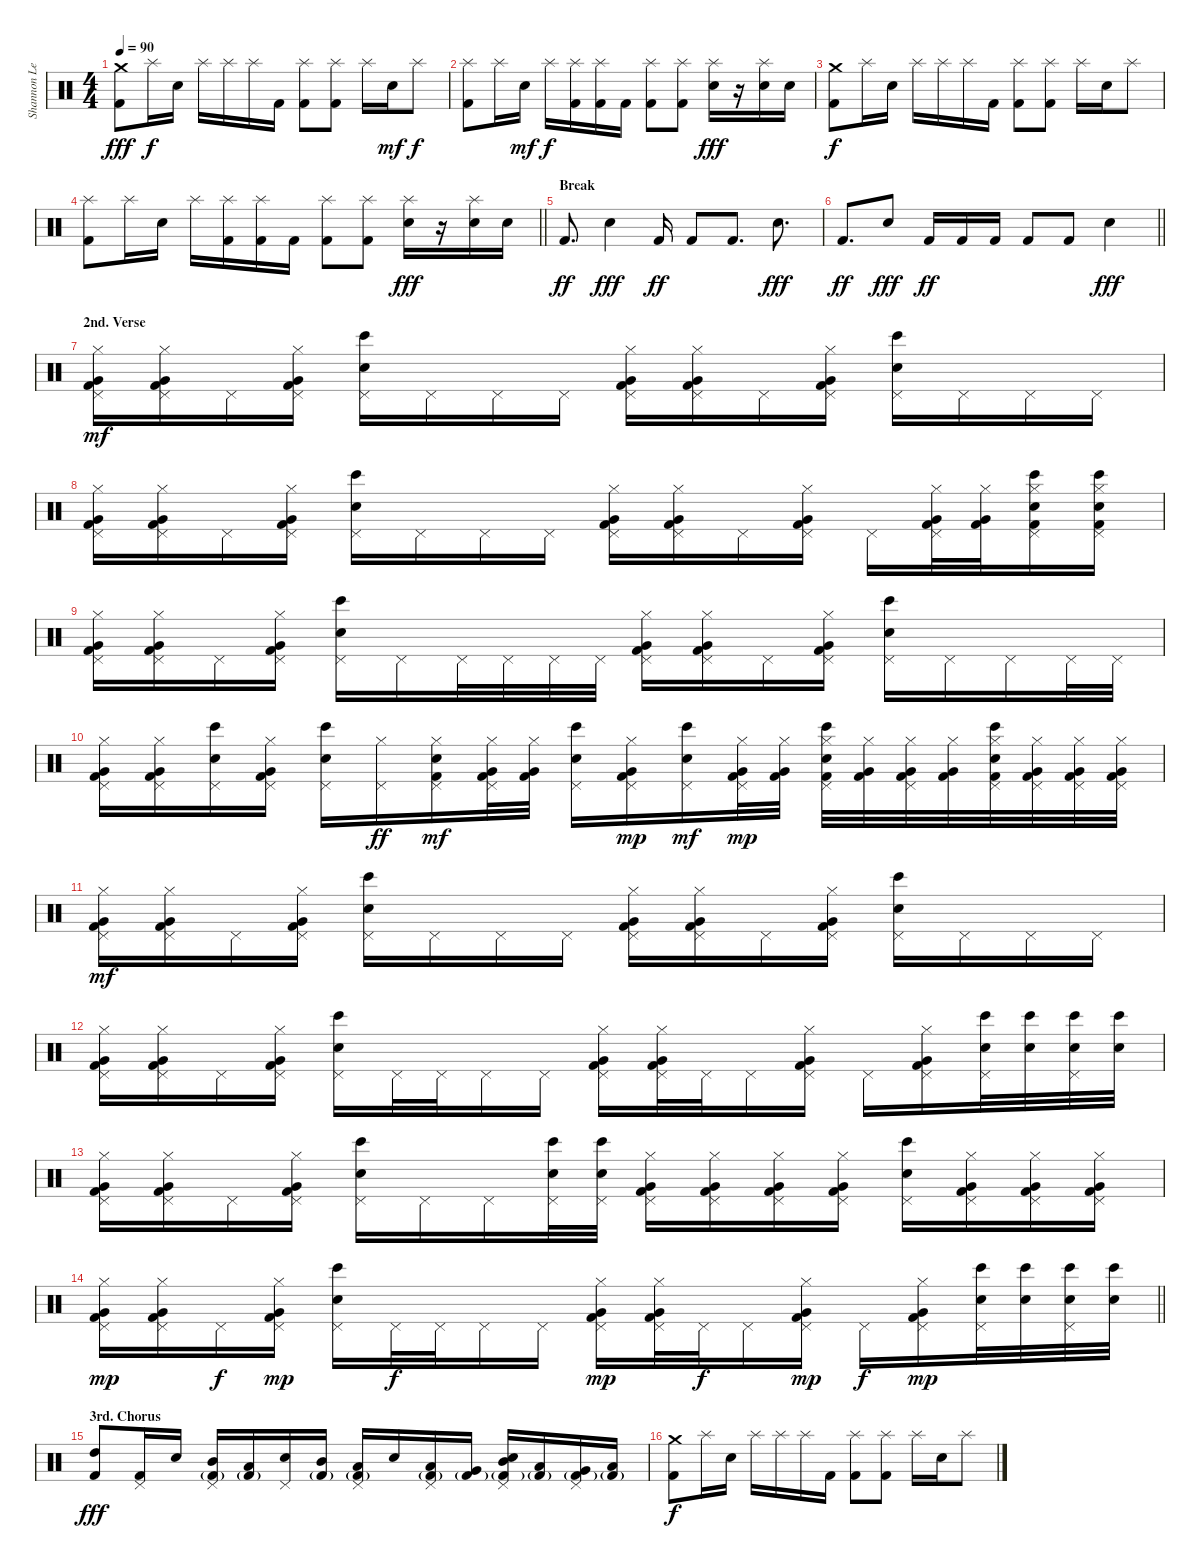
\track ("Shannon Leto - Drums" "Shannon Le") {instrument percussion}
\staff {score}
\articulation defaults
\ts (4 4)
\tempo 90
\clef neutral
\ks c
("Crash medium (hit)" "Kick (hit) 2").8{dy fff} "Splash (hit)".16{dy f} "Electric Snare (hit)".16 "Splash (hit)".16 "Splash (hit)".16 "Splash (hit)".16 "Kick (hit) 2".16 ("Splash (hit)" "Kick (hit) 2").8 ("Splash (hit)" "Kick (hit) 2").8 "Splash (hit)".16 "Electric Snare (hit)".16{dy mf} "Splash (hit)".8{dy f} |
("Splash (hit)" "Kick (hit) 2").8 "Splash (hit)".16 "Electric Snare (hit)".16{dy mf} "Splash (hit)".16{dy f} ("Splash (hit)" "Kick (hit) 2").16 ("Splash (hit)" "Kick (hit) 2").16 "Kick (hit) 2".16 ("Splash (hit)" "Kick (hit) 2").8 ("Splash (hit)" "Kick (hit) 2").8 ("Splash (hit)" "Electric Snare (hit)").16{dy fff} r.16 ("Splash (hit)" "Electric Snare (hit)").16 "Electric Snare (hit)".16 |
("Crash medium (hit)" "Kick (hit) 2").8{dy f} "Splash (hit)".16 "Electric Snare (hit)".16 "Splash (hit)".16 "Splash (hit)".16 "Splash (hit)".16 "Kick (hit) 2".16 ("Splash (hit)" "Kick (hit) 2").8 ("Splash (hit)" "Kick (hit) 2").8 "Splash (hit)".16 "Electric Snare (hit)".16 "Splash (hit)".8 |
\barLineRight lightlight
("Splash (hit)" "Kick (hit) 2").8 "Splash (hit)".16 "Electric Snare (hit)".16 "Splash (hit)".16 ("Splash (hit)" "Kick (hit) 2").16 ("Splash (hit)" "Kick (hit) 2").16 "Kick (hit) 2".16 ("Splash (hit)" "Kick (hit) 2").8 ("Splash (hit)" "Kick (hit) 2").8 ("Splash (hit)" "Electric Snare (hit)").16{dy fff} r.16 ("Splash (hit)" "Electric Snare (hit)").16 "Electric Snare (hit)".16 |
\section ("" "Break")
"Kick (hit) 2".8{d dy ff} "Electric Snare (hit)".4{dy fff} "Kick (hit) 2".16{dy ff} "Kick (hit) 2".8 "Kick (hit) 2".8{d} "Electric Snare (hit)".8{d dy fff} |
\barLineRight lightlight "Kick (hit) 2".8{d dy ff} "Electric Snare (hit)".8{dy fff} "Kick (hit) 2".16{dy ff} "Kick (hit) 2".16 "Kick (hit) 2".16 "Kick (hit) 2".8 "Kick (hit) 2".8 "Electric Snare (hit)".4{dy fff}
|
\section ("" "2nd. Verse")
("Pedal Hi-Hat (hit)" "Very Low Tom (hit)" "Hi-Hat (closed)" "Kick (hit) 2").16{dy mf volume 16} ("Pedal Hi-Hat (hit)" "Very Low Tom (hit)" "Hi-Hat (closed)" "Kick (hit) 2").16 "Pedal Hi-Hat (hit)".16 ("Pedal Hi-Hat (hit)" "Very Low Tom (hit)" "Hi-Hat (closed)" "Kick (hit) 2").16 ("Pedal Hi-Hat (hit)" "Snare (hit) 2" "Bongo High (hit)").16 "Pedal Hi-Hat (hit)".16 "Pedal Hi-Hat (hit)".16 "Pedal Hi-Hat (hit)".16 ("Pedal Hi-Hat (hit)" "Very Low Tom (hit)" "Hi-Hat (closed)" "Kick (hit) 2").16 ("Pedal Hi-Hat (hit)" "Very Low Tom (hit)" "Hi-Hat (closed)" "Kick (hit) 2").16 "Pedal Hi-Hat (hit)".16 ("Pedal Hi-Hat (hit)" "Very Low Tom (hit)" "Hi-Hat (closed)" "Kick (hit) 2").16 ("Pedal Hi-Hat (hit)" "Snare (hit) 2" "Bongo High (hit)").16 "Pedal Hi-Hat (hit)".16 "Pedal Hi-Hat (hit)".16 "Pedal Hi-Hat (hit)".16 |
("Pedal Hi-Hat (hit)" "Very Low Tom (hit)" "Hi-Hat (closed)" "Kick (hit) 2").16 ("Pedal Hi-Hat (hit)" "Very Low Tom (hit)" "Hi-Hat (closed)" "Kick (hit) 2").16 "Pedal Hi-Hat (hit)".16 ("Pedal Hi-Hat (hit)" "Very Low Tom (hit)" "Hi-Hat (closed)" "Kick (hit) 2").16 ("Pedal Hi-Hat (hit)" "Snare (hit) 2" "Bongo High (hit)").16 "Pedal Hi-Hat (hit)".16 "Pedal Hi-Hat (hit)".16 "Pedal Hi-Hat (hit)".16 ("Pedal Hi-Hat (hit)" "Very Low Tom (hit)" "Hi-Hat (closed)" "Kick (hit) 2").16 ("Pedal Hi-Hat (hit)" "Very Low Tom (hit)" "Hi-Hat (closed)" "Kick (hit) 2").16 "Pedal Hi-Hat (hit)".16 ("Pedal Hi-Hat (hit)" "Very Low Tom (hit)" "Hi-Hat (closed)" "Kick (hit) 2").16 "Pedal Hi-Hat (hit)".16 ("Pedal Hi-Hat (hit)" "Very Low Tom (hit)" "Hi-Hat (closed)" "Kick (hit) 2").32 ("Very Low Tom (hit)" "Hi-Hat (closed)" "Kick (hit) 2").32 ("Pedal Hi-Hat (hit)" "Snare (hit) 2" "Bongo High (hit)" "Hi-Hat (closed)" "Kick (hit) 2").16 ("Pedal Hi-Hat (hit)" "Snare (hit) 2" "Bongo High (hit)" "Hi-Hat (closed)" "Kick (hit) 2").16 |
("Pedal Hi-Hat (hit)" "Very Low Tom (hit)" "Hi-Hat (closed)" "Kick (hit) 2").16 ("Pedal Hi-Hat (hit)" "Very Low Tom (hit)" "Hi-Hat (closed)" "Kick (hit) 2").16 "Pedal Hi-Hat (hit)".16 ("Pedal Hi-Hat (hit)" "Very Low Tom (hit)" "Hi-Hat (closed)" "Kick (hit) 2").16 ("Pedal Hi-Hat (hit)" "Snare (hit) 2" "Bongo High (hit)").16 "Pedal Hi-Hat (hit)".16 "Pedal Hi-Hat (hit)".32 "Pedal Hi-Hat (hit)".32 "Pedal Hi-Hat (hit)".32 "Pedal Hi-Hat (hit)".32 ("Pedal Hi-Hat (hit)" "Very Low Tom (hit)" "Hi-Hat (closed)" "Kick (hit) 2").16 ("Pedal Hi-Hat (hit)" "Very Low Tom (hit)" "Hi-Hat (closed)" "Kick (hit) 2").16 "Pedal Hi-Hat (hit)".16 ("Pedal Hi-Hat (hit)" "Very Low Tom (hit)" "Hi-Hat (closed)" "Kick (hit) 2").16 ("Pedal Hi-Hat (hit)" "Snare (hit) 2" "Bongo High (hit)").16 "Pedal Hi-Hat (hit)".16 "Pedal Hi-Hat (hit)".16 "Pedal Hi-Hat (hit)".32 "Pedal Hi-Hat (hit)".32 |
("Pedal Hi-Hat (hit)" "Very Low Tom (hit)" "Hi-Hat (closed)" "Kick (hit) 2").16 ("Pedal Hi-Hat (hit)" "Very Low Tom (hit)" "Hi-Hat (closed)" "Kick (hit) 2").16 ("Pedal Hi-Hat (hit)" "Snare (hit) 2" "Bongo High (hit)").16 ("Pedal Hi-Hat (hit)" "Very Low Tom (hit)" "Hi-Hat (closed)" "Kick (hit) 2").16 ("Pedal Hi-Hat (hit)" "Snare (hit) 2" "Bongo High (hit)").16 ("Pedal Hi-Hat (hit)" "Hi-Hat (closed)").16{dy ff} ("Pedal Hi-Hat (hit)" "Snare (hit)" "Hi-Hat (closed)" "Kick (hit) 2").16{dy mf} ("Pedal Hi-Hat (hit)" "Very Low Tom (hit)" "Hi-Hat (closed)" "Kick (hit) 2").32 ("Very Low Tom (hit)" "Hi-Hat (closed)" "Kick (hit) 2").32 ("Pedal Hi-Hat (hit)" "Snare (hit) 2" "Bongo High (hit)").16 ("Pedal Hi-Hat (hit)" "Very Low Tom (hit)" "Hi-Hat (closed)" "Kick (hit) 2").16{dy mp} ("Pedal Hi-Hat (hit)" "Snare (hit) 2" "Bongo High (hit)").16{dy mf} ("Pedal Hi-Hat (hit)" "Very Low Tom (hit)" "Hi-Hat (closed)" "Kick (hit) 2").32{dy mp} ("Very Low Tom (hit)" "Hi-Hat (closed)" "Kick (hit) 2").32 ("Pedal Hi-Hat (hit)" "Snare (hit) 2" "Bongo High (hit)" "Hi-Hat (closed)" "Kick (hit) 2").32 ("Very Low Tom (hit)" "Hi-Hat (closed)" "Kick (hit) 2").32 ("Pedal Hi-Hat (hit)" "Very Low Tom (hit)" "Hi-Hat (closed)" "Kick (hit) 2").32 ("Very Low Tom (hit)" "Hi-Hat (closed)" "Kick (hit) 2").32 ("Pedal Hi-Hat (hit)" "Snare (hit) 2" "Bongo High (hit)" "Hi-Hat (closed)" "Kick (hit) 2").32 ("Pedal Hi-Hat (hit)" "Very Low Tom (hit)" "Hi-Hat (closed)" "Kick (hit) 2").32 ("Pedal Hi-Hat (hit)" "Very Low Tom (hit)" "Hi-Hat (closed)" "Kick (hit) 2").32 ("Pedal Hi-Hat (hit)" "Very Low Tom (hit)" "Hi-Hat (closed)" "Kick (hit) 2").32 |
("Pedal Hi-Hat (hit)" "Very Low Tom (hit)" "Hi-Hat (closed)" "Kick (hit) 2").16{dy mf} ("Pedal Hi-Hat (hit)" "Very Low Tom (hit)" "Hi-Hat (closed)" "Kick (hit) 2").16 "Pedal Hi-Hat (hit)".16 ("Pedal Hi-Hat (hit)" "Very Low Tom (hit)" "Hi-Hat (closed)" "Kick (hit) 2").16 ("Pedal Hi-Hat (hit)" "Snare (hit) 2" "Bongo High (hit)").16 "Pedal Hi-Hat (hit)".16 "Pedal Hi-Hat (hit)".16 "Pedal Hi-Hat (hit)".16 ("Pedal Hi-Hat (hit)" "Very Low Tom (hit)" "Hi-Hat (closed)" "Kick (hit) 2").16 ("Pedal Hi-Hat (hit)" "Very Low Tom (hit)" "Hi-Hat (closed)" "Kick (hit) 2").16 "Pedal Hi-Hat (hit)".16 ("Pedal Hi-Hat (hit)" "Very Low Tom (hit)" "Hi-Hat (closed)" "Kick (hit) 2").16 ("Pedal Hi-Hat (hit)" "Snare (hit) 2" "Bongo High (hit)").16 "Pedal Hi-Hat (hit)".16 "Pedal Hi-Hat (hit)".16 "Pedal Hi-Hat (hit)".16 |
("Pedal Hi-Hat (hit)" "Very Low Tom (hit)" "Hi-Hat (closed)" "Kick (hit) 2").16 ("Pedal Hi-Hat (hit)" "Very Low Tom (hit)" "Hi-Hat (closed)" "Kick (hit) 2").16 "Pedal Hi-Hat (hit)".16 ("Pedal Hi-Hat (hit)" "Very Low Tom (hit)" "Hi-Hat (closed)" "Kick (hit) 2").16 ("Pedal Hi-Hat (hit)" "Snare (hit) 2" "Bongo High (hit)").16 "Pedal Hi-Hat (hit)".32 "Pedal Hi-Hat (hit)".32 "Pedal Hi-Hat (hit)".16 "Pedal Hi-Hat (hit)".16 ("Pedal Hi-Hat (hit)" "Very Low Tom (hit)" "Hi-Hat (closed)" "Kick (hit) 2").16 ("Pedal Hi-Hat (hit)" "Very Low Tom (hit)" "Hi-Hat (closed)" "Kick (hit) 2").32 "Pedal Hi-Hat (hit)".32 "Pedal Hi-Hat (hit)".16 ("Pedal Hi-Hat (hit)" "Very Low Tom (hit)" "Hi-Hat (closed)" "Kick (hit) 2").16 "Pedal Hi-Hat (hit)".16 ("Pedal Hi-Hat (hit)" "Very Low Tom (hit)" "Hi-Hat (closed)" "Kick (hit) 2").16 ("Pedal Hi-Hat (hit)" "Snare (hit) 2" "Bongo High (hit)").32 ("Snare (hit) 2" "Bongo High (hit)").32 ("Pedal Hi-Hat (hit)" "Snare (hit) 2" "Bongo High (hit)").32 ("Snare (hit) 2" "Bongo High (hit)").32 |
("Pedal Hi-Hat (hit)" "Very Low Tom (hit)" "Hi-Hat (closed)" "Kick (hit) 2").16 ("Pedal Hi-Hat (hit)" "Very Low Tom (hit)" "Hi-Hat (closed)" "Kick (hit) 2").16 "Pedal Hi-Hat (hit)".16 ("Pedal Hi-Hat (hit)" "Very Low Tom (hit)" "Hi-Hat (closed)" "Kick (hit) 2").16 ("Pedal Hi-Hat (hit)" "Snare (hit) 2" "Bongo High (hit)").16 "Pedal Hi-Hat (hit)".16 "Pedal Hi-Hat (hit)".16 ("Pedal Hi-Hat (hit)" "Snare (hit) 2" "Bongo High (hit)").32 ("Pedal Hi-Hat (hit)" "Snare (hit) 2" "Bongo High (hit)").32 ("Pedal Hi-Hat (hit)" "Very Low Tom (hit)" "Hi-Hat (closed)" "Kick (hit) 2").16 ("Pedal Hi-Hat (hit)" "Very Low Tom (hit)" "Hi-Hat (closed)" "Kick (hit) 2").16 ("Pedal Hi-Hat (hit)" "Very Low Tom (hit)" "Hi-Hat (closed)" "Kick (hit) 2").16 ("Pedal Hi-Hat (hit)" "Very Low Tom (hit)" "Hi-Hat (closed)" "Kick (hit) 2").16 ("Pedal Hi-Hat (hit)" "Snare (hit) 2" "Bongo High (hit)").16 ("Pedal Hi-Hat (hit)" "Very Low Tom (hit)" "Hi-Hat (closed)" "Kick (hit) 2").16 ("Pedal Hi-Hat (hit)" "Very Low Tom (hit)" "Hi-Hat (closed)" "Kick (hit) 2").16 ("Pedal Hi-Hat (hit)" "Very Low Tom (hit)" "Hi-Hat (closed)" "Kick (hit) 2").16 |
\barLineRight lightlight
("Pedal Hi-Hat (hit)" "Very Low Tom (hit)" "Hi-Hat (closed)" "Kick (hit) 2").16{dy mp} ("Pedal Hi-Hat (hit)" "Very Low Tom (hit)" "Hi-Hat (closed)" "Kick (hit) 2").16 "Pedal Hi-Hat (hit)".16{dy f} ("Pedal Hi-Hat (hit)" "Very Low Tom (hit)" "Hi-Hat (closed)" "Kick (hit) 2").16{dy mp} ("Pedal Hi-Hat (hit)" "Snare (hit) 2" "Bongo High (hit)").16 "Pedal Hi-Hat (hit)".32{dy f} "Pedal Hi-Hat (hit)".32 "Pedal Hi-Hat (hit)".16 "Pedal Hi-Hat (hit)".16 ("Pedal Hi-Hat (hit)" "Very Low Tom (hit)" "Hi-Hat (closed)" "Kick (hit) 2").16{dy mp} ("Pedal Hi-Hat (hit)" "Very Low Tom (hit)" "Hi-Hat (closed)" "Kick (hit) 2").32 "Pedal Hi-Hat (hit)".32{dy f} "Pedal Hi-Hat (hit)".16 ("Pedal Hi-Hat (hit)" "Very Low Tom (hit)" "Hi-Hat (closed)" "Kick (hit) 2").16{dy mp} "Pedal Hi-Hat (hit)".16{dy f} ("Pedal Hi-Hat (hit)" "Very Low Tom (hit)" "Hi-Hat (closed)" "Kick (hit) 2").16{dy mp} ("Pedal Hi-Hat (hit)" "Snare (hit) 2" "Bongo High (hit)").32 ("Snare (hit) 2" "Bongo High (hit)").32 ("Pedal Hi-Hat (hit)" "Snare (hit) 2" "Bongo High (hit)").32 ("Snare (hit) 2" "Bongo High (hit)").32 |
\section ("" "3rd. Chorus")
("High Tom (hit)" "Kick (hit) 2").8{dy fff} ("Pedal Hi-Hat (hit)" "Kick (hit) 2").16 "Electric Snare (hit)".16 ("Pedal Hi-Hat (hit)" "Mid Tom (hit)" "Kick (hit) 2"{g}).16 ("Low Tom (hit)" "Kick (hit) 2"{g}).16 ("Pedal Hi-Hat (hit)" "Electric Snare (hit)").16 ("Mid Tom (hit)" "Kick (hit) 2"{g}).16 ("Pedal Hi-Hat (hit)" "Low Tom (hit)" "Kick (hit) 2"{g}).16 "Electric Snare (hit)".16 ("Pedal Hi-Hat (hit)" "Low Tom (hit)" "Kick (hit) 2"{g}).16 ("Very Low Tom (hit)" "Kick (hit) 2"{g}).16 ("Pedal Hi-Hat (hit)" "Electric Snare (hit)" "Mid Tom (hit)" "Kick (hit) 2"{g}).16 ("Low Tom (hit)" "Kick (hit) 2"{g}).16 ("Pedal Hi-Hat (hit)" "Very Low Tom (hit)" "Kick (hit) 2"{g}).16 ("Low Floor Tom (hit)" "Kick (hit) 2"{g}).16 |
("Crash medium (hit)" "Kick (hit) 2").8{dy f} "Splash (hit)".16 "Electric Snare (hit)".16 "Splash (hit)".16 "Splash (hit)".16 "Splash (hit)".16 "Kick (hit) 2".16 ("Splash (hit)" "Kick (hit) 2").8 ("Splash (hit)" "Kick (hit) 2").8 "Splash (hit)".16 "Electric Snare (hit)".16 "Splash (hit)".8
